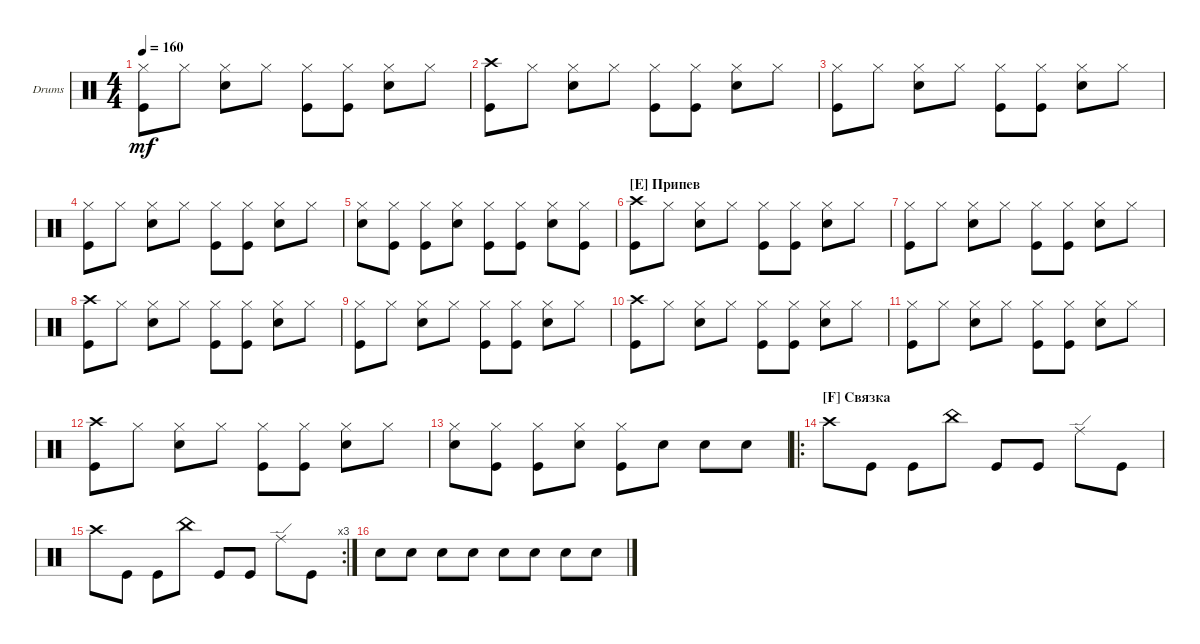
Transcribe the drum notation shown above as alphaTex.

\bracketExtendMode groupsimilarinstruments
\firstSystemTrackNameOrientation horizontal
\otherSystemsTrackNameOrientation horizontal
\track ("Drumkit" "Drums") {instrument percussion}
\staff {score}
\articulation defaults
\ts (4 4)
\tempo 160
\clef neutral
\ks c
("Kick (hit)" "Hi-Hat (closed)").8{dy mf} "Hi-Hat (closed)".8 ("Hi-Hat (closed)" "Snare (hit) 2").8 "Hi-Hat (closed)".8 ("Kick (hit)" "Hi-Hat (closed)").8 ("Hi-Hat (closed)" "Kick (hit)").8 ("Hi-Hat (closed)" "Snare (hit) 2").8 "Hi-Hat (closed)".8 |
("Kick (hit)" "Crash high (hit)").8 "Hi-Hat (closed)".8 ("Hi-Hat (closed)" "Snare (hit) 2").8 "Hi-Hat (closed)".8 ("Kick (hit)" "Hi-Hat (closed)").8 ("Hi-Hat (closed)" "Kick (hit)").8 ("Hi-Hat (closed)" "Snare (hit) 2").8 "Hi-Hat (closed)".8 |
("Kick (hit)" "Hi-Hat (closed)").8 "Hi-Hat (closed)".8 ("Hi-Hat (closed)" "Snare (hit) 2").8 "Hi-Hat (closed)".8 ("Kick (hit)" "Hi-Hat (closed)").8 ("Hi-Hat (closed)" "Kick (hit)").8 ("Hi-Hat (closed)" "Snare (hit) 2").8 "Hi-Hat (closed)".8 |
("Kick (hit)" "Hi-Hat (closed)").8 "Hi-Hat (closed)".8 ("Hi-Hat (closed)" "Snare (hit) 2").8 "Hi-Hat (closed)".8 ("Kick (hit)" "Hi-Hat (closed)").8 ("Hi-Hat (closed)" "Kick (hit)").8 ("Hi-Hat (closed)" "Snare (hit) 2").8 "Hi-Hat (closed)".8 |
("Hi-Hat (closed)" "Snare (hit) 2").8 ("Hi-Hat (closed)" "Kick (hit)").8 ("Hi-Hat (closed)" "Kick (hit)").8 ("Hi-Hat (closed)" "Snare (hit) 2").8 ("Kick (hit)" "Hi-Hat (closed)").8 ("Hi-Hat (closed)" "Kick (hit)").8 ("Hi-Hat (closed)" "Snare (hit) 2").8 ("Hi-Hat (closed)" "Kick (hit)").8 |
\section ("E" "Припев")
("Kick (hit)" "Crash high (hit)").8 "Hi-Hat (closed)".8 ("Hi-Hat (closed)" "Snare (hit) 2").8 "Hi-Hat (closed)".8 ("Kick (hit)" "Hi-Hat (closed)").8 ("Hi-Hat (closed)" "Kick (hit)").8 ("Hi-Hat (closed)" "Snare (hit) 2").8 "Hi-Hat (closed)".8 |
("Kick (hit)" "Hi-Hat (closed)").8 "Hi-Hat (closed)".8 ("Hi-Hat (closed)" "Snare (hit) 2").8 "Hi-Hat (closed)".8 ("Kick (hit)" "Hi-Hat (closed)").8 ("Hi-Hat (closed)" "Kick (hit)").8 ("Hi-Hat (closed)" "Snare (hit) 2").8 "Hi-Hat (closed)".8 |
("Kick (hit)" "Crash high (hit)").8 "Hi-Hat (closed)".8 ("Hi-Hat (closed)" "Snare (hit) 2").8 "Hi-Hat (closed)".8 ("Kick (hit)" "Hi-Hat (closed)").8 ("Hi-Hat (closed)" "Kick (hit)").8 ("Hi-Hat (closed)" "Snare (hit) 2").8 "Hi-Hat (closed)".8 |
("Kick (hit)" "Hi-Hat (closed)").8 "Hi-Hat (closed)".8 ("Hi-Hat (closed)" "Snare (hit) 2").8 "Hi-Hat (closed)".8 ("Kick (hit)" "Hi-Hat (closed)").8 ("Hi-Hat (closed)" "Kick (hit)").8 ("Hi-Hat (closed)" "Snare (hit) 2").8 "Hi-Hat (closed)".8 |
("Kick (hit)" "Crash high (hit)").8 "Hi-Hat (closed)".8 ("Hi-Hat (closed)" "Snare (hit) 2").8 "Hi-Hat (closed)".8 ("Kick (hit)" "Hi-Hat (closed)").8 ("Hi-Hat (closed)" "Kick (hit)").8 ("Hi-Hat (closed)" "Snare (hit) 2").8 "Hi-Hat (closed)".8 |
("Kick (hit)" "Hi-Hat (closed)").8 "Hi-Hat (closed)".8 ("Hi-Hat (closed)" "Snare (hit) 2").8 "Hi-Hat (closed)".8 ("Kick (hit)" "Hi-Hat (closed)").8 ("Hi-Hat (closed)" "Kick (hit)").8 ("Hi-Hat (closed)" "Snare (hit) 2").8 "Hi-Hat (closed)".8 |
("Kick (hit)" "Crash high (hit)").8 "Hi-Hat (closed)".8 ("Hi-Hat (closed)" "Snare (hit) 2").8 "Hi-Hat (closed)".8 ("Kick (hit)" "Hi-Hat (closed)").8 ("Hi-Hat (closed)" "Kick (hit)").8 ("Hi-Hat (closed)" "Snare (hit) 2").8 "Hi-Hat (closed)".8 |
("Hi-Hat (closed)" "Snare (hit) 2").8 ("Hi-Hat (closed)" "Kick (hit)").8 ("Hi-Hat (closed)" "Kick (hit)").8 ("Hi-Hat (closed)" "Snare (hit) 2").8 ("Kick (hit)" "Hi-Hat (closed)").8 "Snare (hit) 2".8 "Snare (hit) 2".8 "Snare (hit) 2".8 |
\ro
\section ("F" "Связка")
"Crash high (hit)".8 "Kick (hit)".8 "Kick (hit)".8 "China (hit)".8 "Kick (hit)".8 "Kick (hit)".8 "Ride (edge)".8 "Kick (hit)".8 |
\rc 3 "Crash high (hit)".8 "Kick (hit)".8 "Kick (hit)".8 "China (hit)".8 "Kick (hit)".8 "Kick (hit)".8 "Ride (edge)".8 "Kick (hit)".8
|
"Snare (hit) 2".8 "Snare (hit) 2".8 "Snare (hit) 2".8 "Snare (hit) 2".8 "Snare (hit) 2".8 "Snare (hit) 2".8 "Snare (hit) 2".8 "Snare (hit) 2".8
